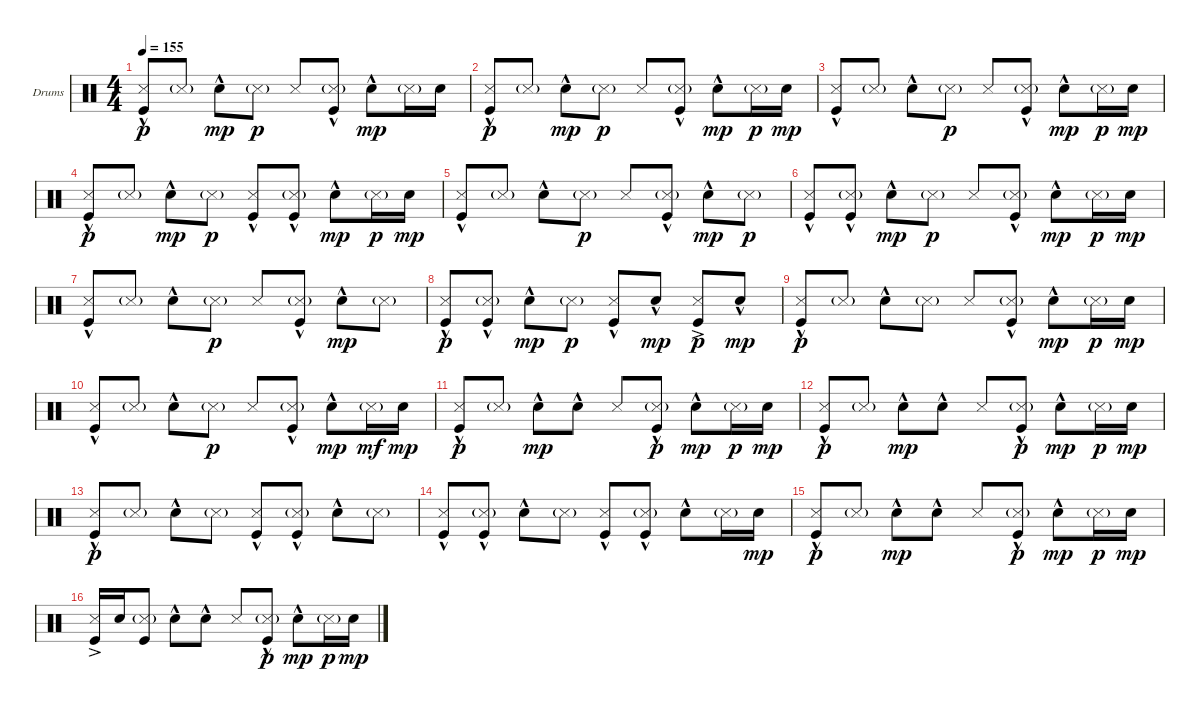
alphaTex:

\defaultSystemsLayout 4
\bracketExtendMode groupsimilarinstruments
\firstSystemTrackNameOrientation horizontal
\otherSystemsTrackNameOrientation horizontal
\track ("Drumkit" "Drums") {instrument percussion}
\staff {score}
\articulation defaults
\ts (4 4)
\tempo 155
\clef neutral
\ks c
("Kick (hit)"{hac} "Snare (side stick) 3").8{dy p} "Snare (side stick) 3"{g}.8 "Snare (hit) 2"{hac}.8{dy mp} "Snare (side stick) 3"{g}.8{dy p} "Snare (side stick) 3".8 ("Snare (side stick) 3"{g} "Kick (hit)"{hac}).8 "Snare (hit) 2"{hac}.8{dy mp} "Snare (side stick) 3"{g}.16 "Snare (hit) 2".16 |
("Kick (hit)"{hac} "Snare (side stick) 3").8{dy p} "Snare (side stick) 3"{g}.8 "Snare (hit) 2"{hac}.8{dy mp} "Snare (side stick) 3"{g}.8{dy p} "Snare (side stick) 3".8 ("Snare (side stick) 3"{g} "Kick (hit)"{hac}).8 "Snare (hit) 2"{hac}.8{dy mp} "Snare (side stick) 3"{g}.16{dy p} "Snare (hit) 2".16{dy mp} |
("Kick (hit)"{hac} "Snare (side stick) 3").8 "Snare (side stick) 3"{g}.8 "Snare (hit) 2"{hac}.8 "Snare (side stick) 3"{g}.8{dy p} "Snare (side stick) 3".8 ("Snare (side stick) 3"{g} "Kick (hit)"{hac}).8 "Snare (hit) 2"{hac}.8{dy mp} "Snare (side stick) 3"{g}.16{dy p} "Snare (hit) 2".16{dy mp} |
("Kick (hit)"{hac} "Snare (side stick) 3").8{dy p} "Snare (side stick) 3"{g}.8 "Snare (hit) 2"{hac}.8{dy mp} "Snare (side stick) 3"{g}.8{dy p} ("Snare (side stick) 3" "Kick (hit)"{hac}).8 ("Snare (side stick) 3"{g} "Kick (hit)"{hac}).8 "Snare (hit) 2"{hac}.8{dy mp} "Snare (side stick) 3"{g}.16{dy p} "Snare (hit) 2".16{dy mp} |
("Kick (hit)"{hac} "Snare (side stick) 3").8 "Snare (side stick) 3"{g}.8 "Snare (hit) 2"{hac}.8 "Snare (side stick) 3"{g}.8{dy p} "Snare (side stick) 3".8 ("Snare (side stick) 3"{g} "Kick (hit)"{hac}).8 "Snare (hit) 2"{hac}.8{dy mp} "Snare (side stick) 3"{g}.8{dy p} |
("Kick (hit)"{hac} "Snare (side stick) 3").8 ("Snare (side stick) 3"{g} "Kick (hit)"{hac}).8 "Snare (hit) 2"{hac}.8{dy mp} "Snare (side stick) 3"{g}.8{dy p} "Snare (side stick) 3".8 ("Snare (side stick) 3"{g} "Kick (hit)"{hac}).8 "Snare (hit) 2"{hac}.8{dy mp} "Snare (side stick) 3"{g}.16{dy p} "Snare (hit) 2".16{dy mp} |
("Kick (hit)"{hac} "Snare (side stick) 3").8 "Snare (side stick) 3"{g}.8 "Snare (hit) 2"{hac}.8 "Snare (side stick) 3"{g}.8{dy p} "Snare (side stick) 3".8 ("Snare (side stick) 3"{g} "Kick (hit)"{hac}).8 "Snare (hit) 2"{hac}.8{dy mp} "Snare (side stick) 3"{g}.8 |
("Kick (hit)"{hac} "Snare (side stick) 3").8{dy p} ("Snare (side stick) 3"{g} "Kick (hit)"{hac}).8 "Snare (hit) 2"{hac}.8{dy mp} "Snare (side stick) 3"{g}.8{dy p} ("Snare (side stick) 3" "Kick (hit)"{hac}).8 "Snare (hit) 2"{hac}.8{dy mp} ("Kick (hit)"{ac} "Snare (side stick) 3").8{dy p} "Snare (hit) 2"{hac}.8{dy mp} |
("Kick (hit)"{hac} "Snare (side stick) 3").8{dy p} "Snare (side stick) 3"{g}.8 "Snare (hit) 2"{hac}.8 "Snare (side stick) 3"{g}.8 "Snare (side stick) 3".8 ("Snare (side stick) 3"{g} "Kick (hit)"{hac}).8 "Snare (hit) 2"{hac}.8{dy mp} "Snare (side stick) 3"{g}.16{dy p} "Snare (hit) 2".16{dy mp} |
("Kick (hit)"{hac} "Snare (side stick) 3").8 "Snare (side stick) 3"{g}.8 "Snare (hit) 2"{hac}.8 "Snare (side stick) 3"{g}.8{dy p} "Snare (side stick) 3".8 ("Snare (side stick) 3"{g} "Kick (hit)"{hac}).8 "Snare (hit) 2"{hac}.8{dy mp} "Snare (side stick) 3"{g}.16{dy mf} "Snare (hit) 2".16{dy mp} |
("Kick (hit)"{hac} "Snare (side stick) 3").8{dy p} "Snare (side stick) 3"{g}.8 "Snare (hit) 2"{hac}.8{dy mp} "Snare (hit) 2"{hac}.8 "Snare (side stick) 3".8 ("Snare (side stick) 3"{g} "Kick (hit)"{hac}).8{dy p} "Snare (hit) 2"{hac}.8{dy mp} "Snare (side stick) 3"{g}.16{dy p} "Snare (hit) 2".16{dy mp} |
("Kick (hit)"{hac} "Snare (side stick) 3").8{dy p} "Snare (side stick) 3"{g}.8 "Snare (hit) 2"{hac}.8{dy mp} "Snare (hit) 2"{hac}.8 "Snare (side stick) 3".8 ("Snare (side stick) 3"{g} "Kick (hit)"{hac}).8{dy p} "Snare (hit) 2"{hac}.8{dy mp} "Snare (side stick) 3"{g}.16{dy p} "Snare (hit) 2".16{dy mp} |
("Kick (hit)"{hac} "Snare (side stick) 3").8{dy p} "Snare (side stick) 3"{g}.8 "Snare (hit) 2"{hac}.8 "Snare (side stick) 3"{g}.8 ("Kick (hit)"{hac} "Snare (side stick) 3").8 ("Kick (hit)"{hac} "Snare (side stick) 3"{g}).8 "Snare (hit) 2"{hac}.8 "Snare (side stick) 3"{g}.8 |
("Kick (hit)"{hac} "Snare (side stick) 3").8 ("Kick (hit)"{hac} "Snare (side stick) 3"{g}).8 "Snare (hit) 2"{hac}.8 "Snare (side stick) 3"{g}.8 ("Kick (hit)"{hac} "Snare (side stick) 3").8 ("Kick (hit)"{hac} "Snare (side stick) 3"{g}).8 "Snare (hit) 2"{hac}.8 "Snare (side stick) 3"{g}.16 "Snare (hit) 2".16{dy mp} |
("Kick (hit)"{hac} "Snare (side stick) 3").8{dy p} "Snare (side stick) 3"{g}.8 "Snare (hit) 2"{hac}.8{dy mp} "Snare (hit) 2"{hac}.8 "Snare (side stick) 3".8 ("Snare (side stick) 3"{g} "Kick (hit)"{hac}).8{dy p} "Snare (hit) 2"{hac}.8{dy mp} "Snare (side stick) 3"{g}.16{dy p} "Snare (hit) 2".16{dy mp} |
("Kick (hit)"{ac} "Snare (side stick) 3").16 "Snare (hit) 2".16 ("Kick (hit)" "Snare (side stick) 3"{g}).8 "Snare (hit) 2"{hac}.8 "Snare (hit) 2"{hac}.8 "Snare (side stick) 3".8 ("Snare (side stick) 3"{g} "Kick (hit)"{hac}).8{dy p} "Snare (hit) 2"{hac}.8{dy mp} "Snare (side stick) 3"{g}.16{dy p} "Snare (hit) 2".16{dy mp}
